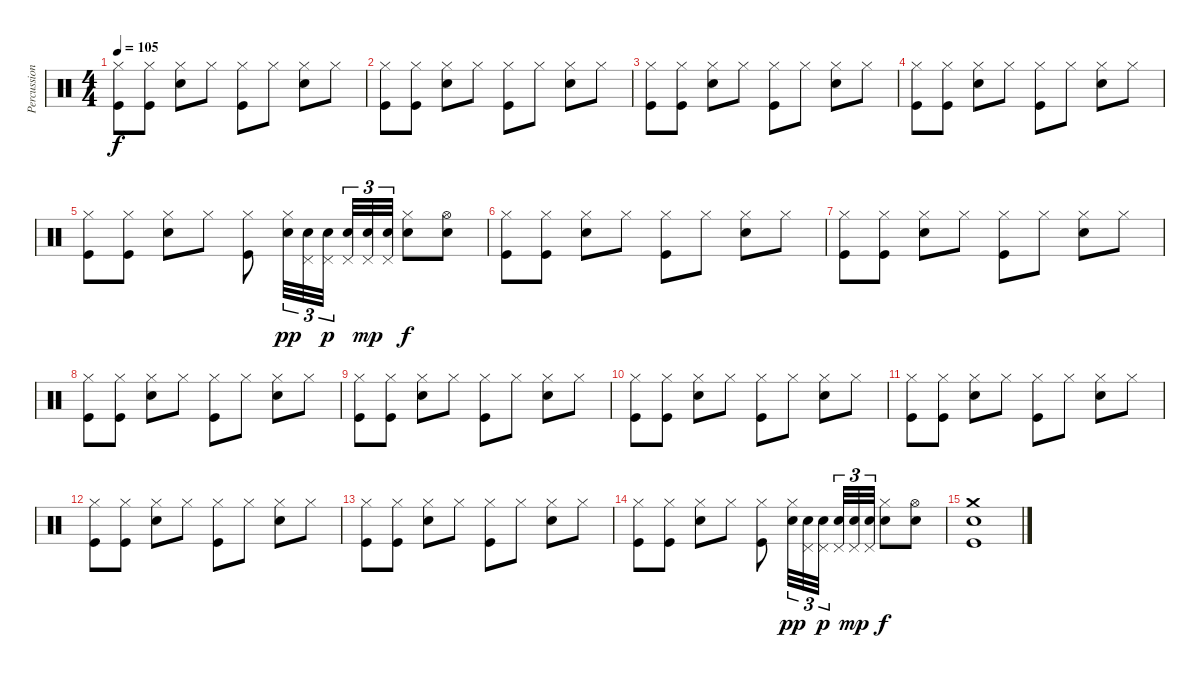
\track ("Percussions" "Percussion") {instrument percussion}
\staff {score}
\articulation defaults
\ts (4 4)
\tempo 105
\clef neutral
\ks c
("Hi-Hat (closed)" "Kick (hit)").8{dy f} ("Hi-Hat (closed)" "Kick (hit)").8 ("Hi-Hat (closed)" "Electric Snare (hit)").8 "Hi-Hat (closed)".8 ("Hi-Hat (closed)" "Kick (hit)").8 "Hi-Hat (closed)".8 ("Hi-Hat (closed)" "Electric Snare (hit)").8 "Hi-Hat (closed)".8 |
("Hi-Hat (closed)" "Kick (hit)").8 ("Hi-Hat (closed)" "Kick (hit)").8 ("Hi-Hat (closed)" "Electric Snare (hit)").8 "Hi-Hat (closed)".8 ("Hi-Hat (closed)" "Kick (hit)").8 "Hi-Hat (closed)".8 ("Hi-Hat (closed)" "Electric Snare (hit)").8 "Hi-Hat (closed)".8 |
("Hi-Hat (closed)" "Kick (hit)").8 ("Hi-Hat (closed)" "Kick (hit)").8 ("Hi-Hat (closed)" "Electric Snare (hit)").8 "Hi-Hat (closed)".8 ("Hi-Hat (closed)" "Kick (hit)").8 "Hi-Hat (closed)".8 ("Hi-Hat (closed)" "Electric Snare (hit)").8 "Hi-Hat (closed)".8 |
("Hi-Hat (closed)" "Kick (hit)").8 ("Hi-Hat (closed)" "Kick (hit)").8 ("Hi-Hat (closed)" "Electric Snare (hit)").8 "Hi-Hat (closed)".8 ("Hi-Hat (closed)" "Kick (hit)").8 "Hi-Hat (closed)".8 ("Hi-Hat (closed)" "Electric Snare (hit)").8 "Hi-Hat (closed)".8 |
("Hi-Hat (closed)" "Kick (hit)").8 ("Hi-Hat (closed)" "Kick (hit)").8 ("Hi-Hat (closed)" "Electric Snare (hit)").8 "Hi-Hat (closed)".8 ("Hi-Hat (closed)" "Kick (hit)").8 ("Hi-Hat (closed)" "Electric Snare (hit)").32{tu (3 2) dy pp} ("Pedal Hi-Hat (hit)" "Electric Snare (hit)").32{tu (3 2)} ("Pedal Hi-Hat (hit)" "Electric Snare (hit)").32{tu (3 2) dy p} ("Pedal Hi-Hat (hit)" "Electric Snare (hit)").32{tu (3 2)} ("Pedal Hi-Hat (hit)" "Electric Snare (hit)").32{tu (3 2) dy mp} ("Pedal Hi-Hat (hit)" "Electric Snare (hit)").32{tu (3 2)} ("Hi-Hat (closed)" "Electric Snare (hit)").8{dy f} ("Hi-Hat (open)" "Electric Snare (hit)").8 |
("Hi-Hat (closed)" "Kick (hit)").8 ("Hi-Hat (closed)" "Kick (hit)").8 ("Hi-Hat (closed)" "Electric Snare (hit)").8 "Hi-Hat (closed)".8 ("Hi-Hat (closed)" "Kick (hit)").8 "Hi-Hat (closed)".8 ("Hi-Hat (closed)" "Electric Snare (hit)").8 "Hi-Hat (closed)".8 |
("Hi-Hat (closed)" "Kick (hit)").8 ("Hi-Hat (closed)" "Kick (hit)").8 ("Hi-Hat (closed)" "Electric Snare (hit)").8 "Hi-Hat (closed)".8 ("Hi-Hat (closed)" "Kick (hit)").8 "Hi-Hat (closed)".8 ("Hi-Hat (closed)" "Electric Snare (hit)").8 "Hi-Hat (closed)".8 |
("Hi-Hat (closed)" "Kick (hit)").8 ("Hi-Hat (closed)" "Kick (hit)").8 ("Hi-Hat (closed)" "Electric Snare (hit)").8 "Hi-Hat (closed)".8 ("Hi-Hat (closed)" "Kick (hit)").8 "Hi-Hat (closed)".8 ("Hi-Hat (closed)" "Electric Snare (hit)").8 "Hi-Hat (closed)".8 |
("Hi-Hat (closed)" "Kick (hit)").8 ("Hi-Hat (closed)" "Kick (hit)").8 ("Hi-Hat (closed)" "Electric Snare (hit)").8 "Hi-Hat (closed)".8 ("Hi-Hat (closed)" "Kick (hit)").8 "Hi-Hat (closed)".8 ("Hi-Hat (closed)" "Electric Snare (hit)").8 "Hi-Hat (closed)".8 |
("Hi-Hat (closed)" "Kick (hit)").8 ("Hi-Hat (closed)" "Kick (hit)").8 ("Hi-Hat (closed)" "Electric Snare (hit)").8 "Hi-Hat (closed)".8 ("Hi-Hat (closed)" "Kick (hit)").8 "Hi-Hat (closed)".8 ("Hi-Hat (closed)" "Electric Snare (hit)").8 "Hi-Hat (closed)".8 |
("Hi-Hat (closed)" "Kick (hit)").8 ("Hi-Hat (closed)" "Kick (hit)").8 ("Hi-Hat (closed)" "Electric Snare (hit)").8 "Hi-Hat (closed)".8 ("Hi-Hat (closed)" "Kick (hit)").8 "Hi-Hat (closed)".8 ("Hi-Hat (closed)" "Electric Snare (hit)").8 "Hi-Hat (closed)".8 |
("Hi-Hat (closed)" "Kick (hit)").8 ("Hi-Hat (closed)" "Kick (hit)").8 ("Hi-Hat (closed)" "Electric Snare (hit)").8 "Hi-Hat (closed)".8 ("Hi-Hat (closed)" "Kick (hit)").8 "Hi-Hat (closed)".8 ("Hi-Hat (closed)" "Electric Snare (hit)").8 "Hi-Hat (closed)".8 |
("Hi-Hat (closed)" "Kick (hit)").8 ("Hi-Hat (closed)" "Kick (hit)").8 ("Hi-Hat (closed)" "Electric Snare (hit)").8 "Hi-Hat (closed)".8 ("Hi-Hat (closed)" "Kick (hit)").8 "Hi-Hat (closed)".8 ("Hi-Hat (closed)" "Electric Snare (hit)").8 "Hi-Hat (closed)".8 |
("Hi-Hat (closed)" "Kick (hit)").8 ("Hi-Hat (closed)" "Kick (hit)").8 ("Hi-Hat (closed)" "Electric Snare (hit)").8 "Hi-Hat (closed)".8 ("Hi-Hat (closed)" "Kick (hit)").8 ("Hi-Hat (closed)" "Electric Snare (hit)").32{tu (3 2) dy pp} ("Pedal Hi-Hat (hit)" "Electric Snare (hit)").32{tu (3 2)} ("Pedal Hi-Hat (hit)" "Electric Snare (hit)").32{tu (3 2) dy p} ("Pedal Hi-Hat (hit)" "Electric Snare (hit)").32{tu (3 2)} ("Pedal Hi-Hat (hit)" "Electric Snare (hit)").32{tu (3 2) dy mp} ("Pedal Hi-Hat (hit)" "Electric Snare (hit)").32{tu (3 2)} ("Hi-Hat (closed)" "Electric Snare (hit)").8{dy f} ("Hi-Hat (open)" "Electric Snare (hit)").8 |
("Crash medium (hit)" "Electric Snare (hit)" "Kick (hit)").1
